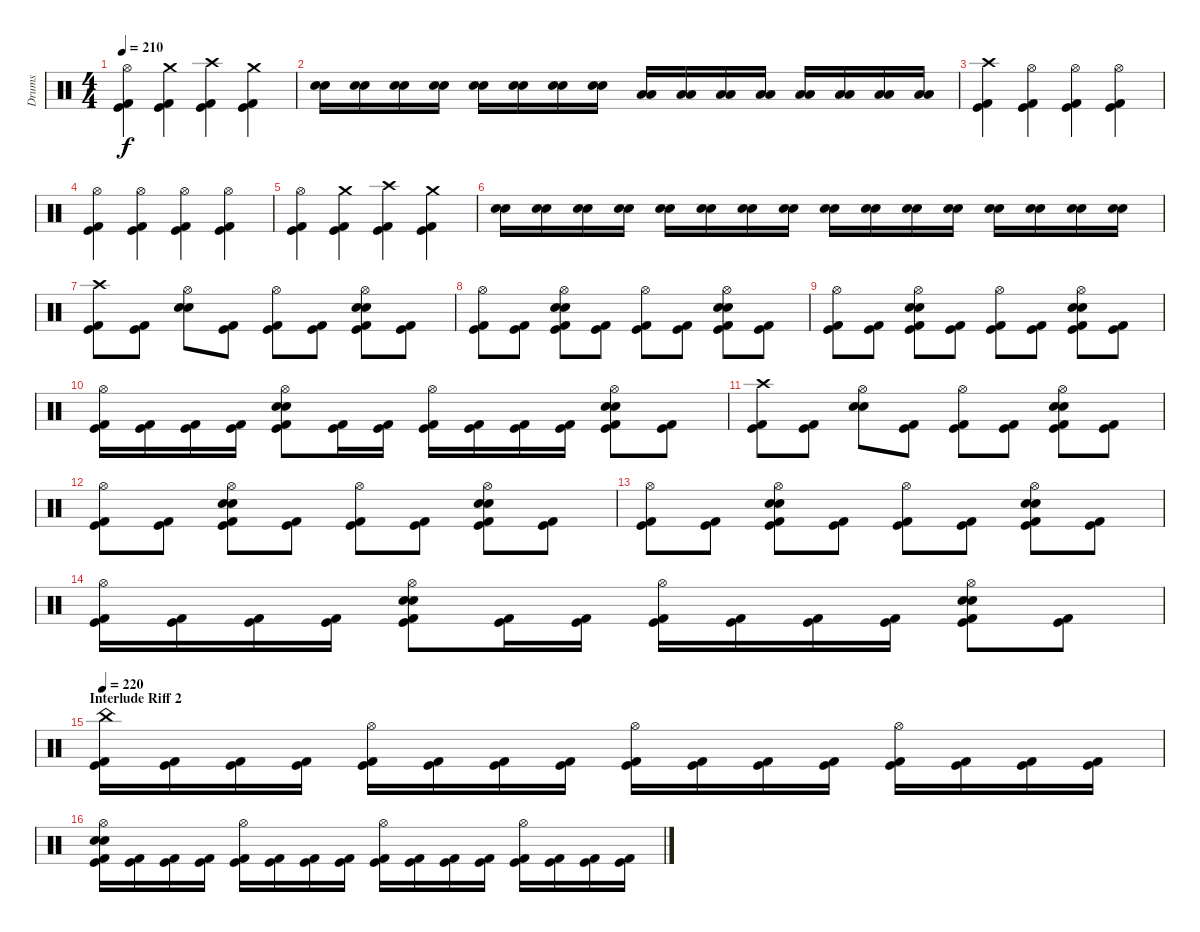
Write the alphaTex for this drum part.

\track ("Drums" "Drums") {instrument percussion}
\staff {score}
\articulation defaults
\ts (4 4)
\tempo 210
\clef neutral
\ks c
("Hi-Hat (open)" "Kick (hit) 2" "Kick (hit)").4{dy f} ("Crash medium (hit)" "Kick (hit) 2" "Kick (hit)").4 ("Crash high (hit)" "Kick (hit) 2" "Kick (hit)").4 ("Crash medium (hit)" "Kick (hit) 2" "Kick (hit)").4 |
("Electric Snare (hit)" "Electric Snare (hit)").16 ("Electric Snare (hit)" "Electric Snare (hit)").16 ("Electric Snare (hit)" "Electric Snare (hit)").16 ("Electric Snare (hit)" "Electric Snare (hit)").16 ("Electric Snare (hit)" "Electric Snare (hit)").16 ("Electric Snare (hit)" "Electric Snare (hit)").16 ("Electric Snare (hit)" "Electric Snare (hit)").16 ("Electric Snare (hit)" "Electric Snare (hit)").16 ("Low Tom (hit)" "Low Tom (hit)").16 ("Low Tom (hit)" "Low Tom (hit)").16 ("Low Tom (hit)" "Low Tom (hit)").16 ("Low Tom (hit)" "Low Tom (hit)").16 ("Low Tom (hit)" "Low Tom (hit)").16 ("Low Tom (hit)" "Low Tom (hit)").16 ("Low Tom (hit)" "Low Tom (hit)").16 ("Low Tom (hit)" "Low Tom (hit)").16 |
("Crash high (hit)" "Kick (hit) 2" "Kick (hit)").4 ("Hi-Hat (open)" "Kick (hit) 2" "Kick (hit)").4 ("Hi-Hat (open)" "Kick (hit) 2" "Kick (hit)").4 ("Hi-Hat (open)" "Kick (hit) 2" "Kick (hit)").4 |
("Hi-Hat (open)" "Kick (hit) 2" "Kick (hit)").4 ("Hi-Hat (open)" "Kick (hit) 2" "Kick (hit)").4 ("Hi-Hat (open)" "Kick (hit) 2" "Kick (hit)").4 ("Hi-Hat (open)" "Kick (hit) 2" "Kick (hit)").4 |
("Hi-Hat (open)" "Kick (hit) 2" "Kick (hit)").4 ("Crash medium (hit)" "Kick (hit) 2" "Kick (hit)").4 ("Crash high (hit)" "Kick (hit) 2" "Kick (hit)").4 ("Crash medium (hit)" "Kick (hit) 2" "Kick (hit)").4 |
("Electric Snare (hit)" "Electric Snare (hit)").16 ("Electric Snare (hit)" "Electric Snare (hit)").16 ("Electric Snare (hit)" "Electric Snare (hit)").16 ("Electric Snare (hit)" "Electric Snare (hit)").16 ("Electric Snare (hit)" "Electric Snare (hit)").16 ("Electric Snare (hit)" "Electric Snare (hit)").16 ("Electric Snare (hit)" "Electric Snare (hit)").16 ("Electric Snare (hit)" "Electric Snare (hit)").16 ("Electric Snare (hit)" "Electric Snare (hit)").16 ("Electric Snare (hit)" "Electric Snare (hit)").16 ("Electric Snare (hit)" "Electric Snare (hit)").16 ("Electric Snare (hit)" "Electric Snare (hit)").16 ("Electric Snare (hit)" "Electric Snare (hit)").16 ("Electric Snare (hit)" "Electric Snare (hit)").16 ("Electric Snare (hit)" "Electric Snare (hit)").16 ("Electric Snare (hit)" "Electric Snare (hit)").16 |
("Crash high (hit)" "Kick (hit) 2" "Kick (hit)").8 ("Kick (hit) 2" "Kick (hit)").8 ("Hi-Hat (open)" "Electric Snare (hit)" "Electric Snare (hit)").8 ("Kick (hit) 2" "Kick (hit)").8 ("Hi-Hat (open)" "Kick (hit) 2" "Kick (hit)").8 ("Kick (hit) 2" "Kick (hit)").8 ("Hi-Hat (open)" "Electric Snare (hit)" "Electric Snare (hit)" "Kick (hit) 2" "Kick (hit)").8 ("Kick (hit) 2" "Kick (hit)").8 |
("Hi-Hat (open)" "Kick (hit) 2" "Kick (hit)").8 ("Kick (hit) 2" "Kick (hit)").8 ("Hi-Hat (open)" "Electric Snare (hit)" "Electric Snare (hit)" "Kick (hit) 2" "Kick (hit)").8 ("Kick (hit) 2" "Kick (hit)").8 ("Hi-Hat (open)" "Kick (hit) 2" "Kick (hit)").8 ("Kick (hit) 2" "Kick (hit)").8 ("Hi-Hat (open)" "Electric Snare (hit)" "Electric Snare (hit)" "Kick (hit) 2" "Kick (hit)").8 ("Kick (hit) 2" "Kick (hit)").8 |
("Hi-Hat (open)" "Kick (hit) 2" "Kick (hit)").8 ("Kick (hit) 2" "Kick (hit)").8 ("Hi-Hat (open)" "Electric Snare (hit)" "Electric Snare (hit)" "Kick (hit) 2" "Kick (hit)").8 ("Kick (hit) 2" "Kick (hit)").8 ("Hi-Hat (open)" "Kick (hit) 2" "Kick (hit)").8 ("Kick (hit) 2" "Kick (hit)").8 ("Hi-Hat (open)" "Electric Snare (hit)" "Electric Snare (hit)" "Kick (hit) 2" "Kick (hit)").8 ("Kick (hit) 2" "Kick (hit)").8 |
("Hi-Hat (open)" "Kick (hit) 2" "Kick (hit)").16 ("Kick (hit) 2" "Kick (hit)").16 ("Kick (hit) 2" "Kick (hit)").16 ("Kick (hit) 2" "Kick (hit)").16 ("Hi-Hat (open)" "Electric Snare (hit)" "Electric Snare (hit)" "Kick (hit) 2" "Kick (hit)").8 ("Kick (hit) 2" "Kick (hit)").16 ("Kick (hit) 2" "Kick (hit)").16 ("Hi-Hat (open)" "Kick (hit) 2" "Kick (hit)").16 ("Kick (hit) 2" "Kick (hit)").16 ("Kick (hit) 2" "Kick (hit)").16 ("Kick (hit) 2" "Kick (hit)").16 ("Hi-Hat (open)" "Electric Snare (hit)" "Electric Snare (hit)" "Kick (hit) 2" "Kick (hit)").8 ("Kick (hit) 2" "Kick (hit)").8 |
("Crash high (hit)" "Kick (hit) 2" "Kick (hit)").8 ("Kick (hit) 2" "Kick (hit)").8 ("Hi-Hat (open)" "Electric Snare (hit)" "Electric Snare (hit)").8 ("Kick (hit) 2" "Kick (hit)").8 ("Hi-Hat (open)" "Kick (hit) 2" "Kick (hit)").8 ("Kick (hit) 2" "Kick (hit)").8 ("Hi-Hat (open)" "Electric Snare (hit)" "Electric Snare (hit)" "Kick (hit) 2" "Kick (hit)").8 ("Kick (hit) 2" "Kick (hit)").8 |
("Hi-Hat (open)" "Kick (hit) 2" "Kick (hit)").8 ("Kick (hit) 2" "Kick (hit)").8 ("Hi-Hat (open)" "Electric Snare (hit)" "Electric Snare (hit)" "Kick (hit) 2" "Kick (hit)").8 ("Kick (hit) 2" "Kick (hit)").8 ("Hi-Hat (open)" "Kick (hit) 2" "Kick (hit)").8 ("Kick (hit) 2" "Kick (hit)").8 ("Hi-Hat (open)" "Electric Snare (hit)" "Electric Snare (hit)" "Kick (hit) 2" "Kick (hit)").8 ("Kick (hit) 2" "Kick (hit)").8 |
("Hi-Hat (open)" "Kick (hit) 2" "Kick (hit)").8 ("Kick (hit) 2" "Kick (hit)").8 ("Hi-Hat (open)" "Electric Snare (hit)" "Electric Snare (hit)" "Kick (hit) 2" "Kick (hit)").8 ("Kick (hit) 2" "Kick (hit)").8 ("Hi-Hat (open)" "Kick (hit) 2" "Kick (hit)").8 ("Kick (hit) 2" "Kick (hit)").8 ("Hi-Hat (open)" "Electric Snare (hit)" "Electric Snare (hit)" "Kick (hit) 2" "Kick (hit)").8 ("Kick (hit) 2" "Kick (hit)").8 |
("Hi-Hat (open)" "Kick (hit) 2" "Kick (hit)").16 ("Kick (hit) 2" "Kick (hit)").16 ("Kick (hit) 2" "Kick (hit)").16 ("Kick (hit) 2" "Kick (hit)").16 ("Hi-Hat (open)" "Electric Snare (hit)" "Electric Snare (hit)" "Kick (hit) 2" "Kick (hit)").8 ("Kick (hit) 2" "Kick (hit)").16 ("Kick (hit) 2" "Kick (hit)").16 ("Hi-Hat (open)" "Kick (hit) 2" "Kick (hit)").16 ("Kick (hit) 2" "Kick (hit)").16 ("Kick (hit) 2" "Kick (hit)").16 ("Kick (hit) 2" "Kick (hit)").16 ("Hi-Hat (open)" "Electric Snare (hit)" "Electric Snare (hit)" "Kick (hit) 2" "Kick (hit)").8 ("Kick (hit) 2" "Kick (hit)").8 |
\section ("" "Interlude Riff 2")
\tempo 220
("China (hit)" "Kick (hit) 2" "Kick (hit)").16 ("Kick (hit) 2" "Kick (hit)").16 ("Kick (hit) 2" "Kick (hit)").16 ("Kick (hit) 2" "Kick (hit)").16 ("Hi-Hat (open)" "Kick (hit) 2" "Kick (hit)").16 ("Kick (hit) 2" "Kick (hit)").16 ("Kick (hit) 2" "Kick (hit)").16 ("Kick (hit) 2" "Kick (hit)").16 ("Hi-Hat (open)" "Kick (hit) 2" "Kick (hit)").16 ("Kick (hit) 2" "Kick (hit)").16 ("Kick (hit) 2" "Kick (hit)").16 ("Kick (hit) 2" "Kick (hit)").16 ("Hi-Hat (open)" "Kick (hit) 2" "Kick (hit)").16 ("Kick (hit) 2" "Kick (hit)").16 ("Kick (hit) 2" "Kick (hit)").16 ("Kick (hit) 2" "Kick (hit)").16 |
("Hi-Hat (open)" "Electric Snare (hit)" "Electric Snare (hit)" "Kick (hit) 2" "Kick (hit)").16 ("Kick (hit) 2" "Kick (hit)").16 ("Kick (hit) 2" "Kick (hit)").16 ("Kick (hit) 2" "Kick (hit)").16 ("Hi-Hat (open)" "Kick (hit) 2" "Kick (hit)").16 ("Kick (hit) 2" "Kick (hit)").16 ("Kick (hit) 2" "Kick (hit)").16 ("Kick (hit) 2" "Kick (hit)").16 ("Hi-Hat (open)" "Kick (hit) 2" "Kick (hit)").16 ("Kick (hit) 2" "Kick (hit)").16 ("Kick (hit) 2" "Kick (hit)").16 ("Kick (hit) 2" "Kick (hit)").16 ("Hi-Hat (open)" "Kick (hit) 2" "Kick (hit)").16 ("Kick (hit) 2" "Kick (hit)").16 ("Kick (hit) 2" "Kick (hit)").16 ("Kick (hit) 2" "Kick (hit)").16
